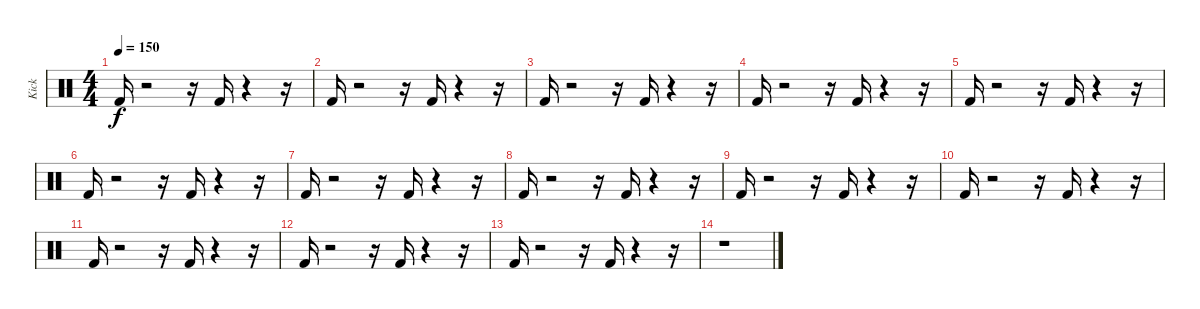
\track ("Kick" "Kick") {instrument percussion}
\staff {score}
\articulation defaults
\ts (4 4)
\tempo 150
\clef neutral
\ks c "Kick (hit) 2".16{dy f}
r.2 r.16 "Kick (hit) 2".16 r.4 r.16 |
"Kick (hit) 2".16 r.2 r.16 "Kick (hit) 2".16 r.4 r.16 |
"Kick (hit) 2".16 r.2 r.16 "Kick (hit) 2".16 r.4 r.16 |
"Kick (hit) 2".16 r.2 r.16 "Kick (hit) 2".16 r.4 r.16 |
"Kick (hit) 2".16 r.2 r.16 "Kick (hit) 2".16 r.4 r.16 |
"Kick (hit) 2".16 r.2 r.16 "Kick (hit) 2".16 r.4 r.16 |
"Kick (hit) 2".16 r.2 r.16 "Kick (hit) 2".16 r.4 r.16 |
"Kick (hit) 2".16 r.2 r.16 "Kick (hit) 2".16 r.4 r.16 |
"Kick (hit) 2".16 r.2 r.16 "Kick (hit) 2".16 r.4 r.16 |
"Kick (hit) 2".16 r.2 r.16 "Kick (hit) 2".16 r.4 r.16 |
"Kick (hit) 2".16 r.2 r.16 "Kick (hit) 2".16 r.4 r.16 |
"Kick (hit) 2".16 r.2 r.16 "Kick (hit) 2".16 r.4 r.16 |
"Kick (hit) 2".16 r.2 r.16 "Kick (hit) 2".16 r.4 r.16 |
r.1
